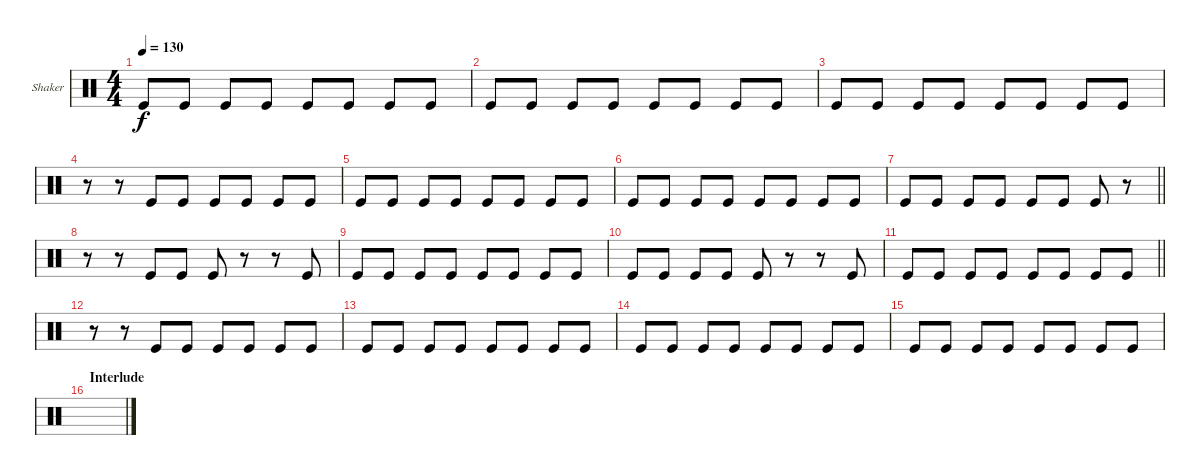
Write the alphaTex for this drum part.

\defaultSystemsLayout 4
\bracketExtendMode groupsimilarinstruments
\firstSystemTrackNameOrientation horizontal
\otherSystemsTrackNameOrientation horizontal
\track ("Shaker" "Shaker") {instrument percussion}
\staff {score}
\articulation defaults
\ts (4 4)
\tempo 130
\clef neutral
\scale
0.333333
\ks aminor "Kick (hit)".8{dy f} "Kick (hit)".8 "Kick (hit)".8 "Kick (hit)".8 "Kick (hit)".8 "Kick (hit)".8 "Kick (hit)".8 "Kick (hit)".8
|
\scale
0.333333 "Kick (hit)".8 "Kick (hit)".8 "Kick (hit)".8 "Kick (hit)".8 "Kick (hit)".8 "Kick (hit)".8 "Kick (hit)".8 "Kick (hit)".8 |
\scale
0.333333 "Kick (hit)".8 "Kick (hit)".8 "Kick (hit)".8 "Kick (hit)".8 "Kick (hit)".8 "Kick (hit)".8 "Kick (hit)".8 "Kick (hit)".8 |
\scale
0.333333 r.8 r.8 "Kick (hit)".8 "Kick (hit)".8 "Kick (hit)".8 "Kick (hit)".8 "Kick (hit)".8 "Kick (hit)".8 |
\scale
0.333333 "Kick (hit)".8 "Kick (hit)".8 "Kick (hit)".8 "Kick (hit)".8 "Kick (hit)".8 "Kick (hit)".8 "Kick (hit)".8 "Kick (hit)".8 |
\scale
0.333333 "Kick (hit)".8 "Kick (hit)".8 "Kick (hit)".8 "Kick (hit)".8 "Kick (hit)".8 "Kick (hit)".8 "Kick (hit)".8 "Kick (hit)".8 |
\scale
0.333333
\barLineRight lightlight "Kick (hit)".8 "Kick (hit)".8 "Kick (hit)".8 "Kick (hit)".8 "Kick (hit)".8 "Kick (hit)".8 "Kick (hit)".8
r.8 |
\scale
0.333333 r.8 r.8 "Kick (hit)".8 "Kick (hit)".8 "Kick (hit)".8 r.8 r.8 "Kick (hit)".8 |
\scale
0.333333 "Kick (hit)".8 "Kick (hit)".8 "Kick (hit)".8 "Kick (hit)".8 "Kick (hit)".8 "Kick (hit)".8 "Kick (hit)".8 "Kick (hit)".8 |
\scale
0.333333 "Kick (hit)".8 "Kick (hit)".8 "Kick (hit)".8 "Kick (hit)".8 "Kick (hit)".8 r.8 r.8 "Kick (hit)".8 |
\scale
0.333333
\barLineRight lightlight "Kick (hit)".8 "Kick (hit)".8 "Kick (hit)".8 "Kick (hit)".8 "Kick (hit)".8 "Kick (hit)".8 "Kick (hit)".8 "Kick (hit)".8
|
\scale
0.333333 r.8 r.8 "Kick (hit)".8 "Kick (hit)".8 "Kick (hit)".8 "Kick (hit)".8 "Kick (hit)".8 "Kick (hit)".8 |
\scale
0.333333 "Kick (hit)".8 "Kick (hit)".8 "Kick (hit)".8 "Kick (hit)".8 "Kick (hit)".8 "Kick (hit)".8 "Kick (hit)".8 "Kick (hit)".8 |
\scale
0.333333 "Kick (hit)".8 "Kick (hit)".8 "Kick (hit)".8 "Kick (hit)".8 "Kick (hit)".8 "Kick (hit)".8 "Kick (hit)".8 "Kick (hit)".8 |
\scale
0.333333 "Kick (hit)".8 "Kick (hit)".8 "Kick (hit)".8 "Kick (hit)".8 "Kick (hit)".8 "Kick (hit)".8 "Kick (hit)".8 "Kick (hit)".8 |
\section ("" "Interlude")
\scale
0.333333
